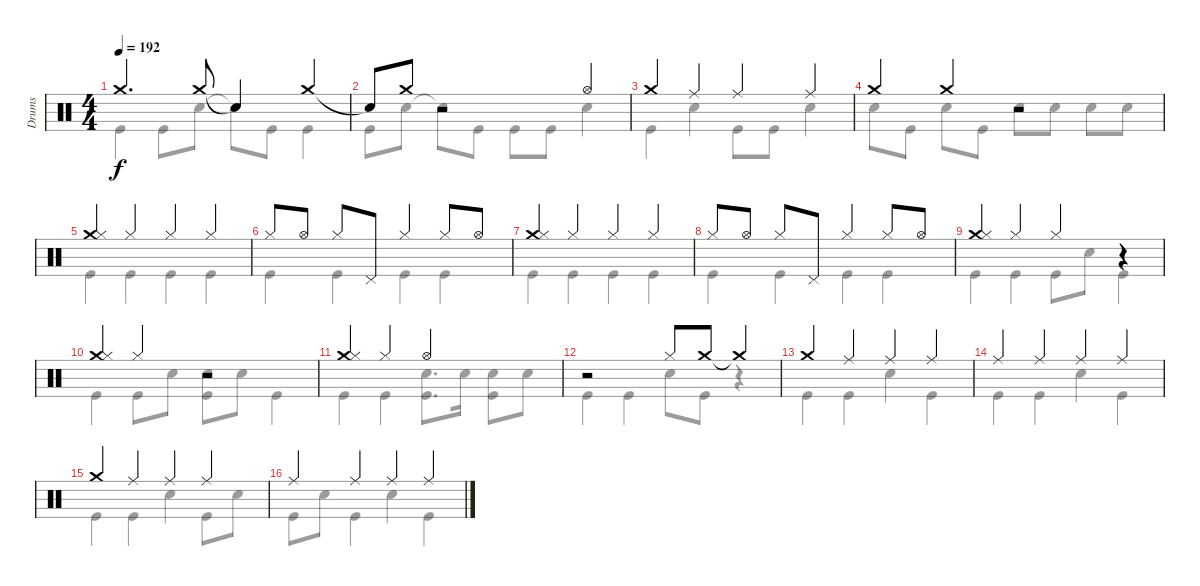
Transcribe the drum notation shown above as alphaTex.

\track ("Drums" "Drums") {instrument percussion}
\staff {score}
\articulation defaults
\voice
\ts (4 4)
\tempo 192
\clef neutral
\ks c "Crash medium (hit)".4{d dy f} "Crash medium (hit)".8 "Snare (hit)"{t}.4 "Crash medium (hit)".4
|
"Snare (hit)"{t}.8 "Crash medium (hit)".8 r.2 "Hi-Hat (open)".4 |
"Crash medium (hit)".4 "Ride (middle)".4 "Ride (middle)".4 "Ride (middle)".4 |
"Crash medium (hit)".4 "Crash medium (hit)".4 r.2 |
("Crash medium (hit)" "Hi-Hat (closed)").4 "Hi-Hat (closed)".4 "Hi-Hat (closed)".4 "Hi-Hat (closed)".4 |
"Hi-Hat (closed)".8 "Hi-Hat (open)".8 "Hi-Hat (closed)".8 "Pedal Hi-Hat (hit)".8 "Hi-Hat (closed)".4 "Hi-Hat (closed)".8 "Hi-Hat (open)".8 |
("Crash medium (hit)" "Hi-Hat (closed)").4 "Hi-Hat (closed)".4 "Hi-Hat (closed)".4 "Hi-Hat (closed)".4 |
"Hi-Hat (closed)".8 "Hi-Hat (open)".8 "Hi-Hat (closed)".8 "Pedal Hi-Hat (hit)".8 "Hi-Hat (closed)".4 "Hi-Hat (closed)".8 "Hi-Hat (open)".8 |
("Crash medium (hit)" "Hi-Hat (closed)").4 "Hi-Hat (closed)".4 "Hi-Hat (closed)".4 r.4 |
("Crash medium (hit)" "Hi-Hat (closed)").4 "Hi-Hat (closed)".4 r.2 |
("Crash medium (hit)" "Hi-Hat (closed)").4 "Hi-Hat (closed)".4 "Hi-Hat (open)".2 |
r.2 "Hi-Hat (closed)".8 "Crash medium (hit)".8 "Crash medium (hit)"{t}.4 |
"Crash medium (hit)".4 "Ride (middle)".4 "Ride (middle)".4 "Ride (middle)".4 |
"Ride (middle)".4 "Ride (middle)".4 "Ride (middle)".4 "Ride (middle)".4 |
"Crash medium (hit)".4 "Ride (middle)".4 "Ride (middle)".4 "Ride (middle)".4 |
"Ride (middle)".4 "Ride (middle)".4 "Ride (middle)".4 "Ride (middle)".4
\voice
\clef neutral
\ottava regular
\simile none
\ks c "Kick (hit)".4{dy f} "Kick (hit)".8 "Snare (hit) 2".8 "Snare (hit)"{t}.8 "Kick (hit)".8 "Kick (hit)".4
|
"Kick (hit)".8 "Snare (hit) 2".8 "Snare (hit)"{t}.8 "Kick (hit)".8 "Kick (hit)".8 "Kick (hit)".8 "Snare (hit) 2".4 |
"Kick (hit)".4 "Snare (hit) 2".4 "Kick (hit)".8 "Kick (hit)".8 "Snare (hit) 2".4 |
"Snare (hit) 2".8 "Kick (hit)".8 "Snare (hit) 2".8 "Kick (hit)".8 "Snare (hit) 2".8 "Snare (hit) 2".8 "Snare (hit) 2".8 "Snare (hit) 2".8 |
"Kick (hit)".4 "Kick (hit)".4 "Kick (hit)".4 "Kick (hit)".4 |
"Kick (hit)".4 "Kick (hit)".4 "Kick (hit)".4 "Kick (hit)".4 |
"Kick (hit)".4 "Kick (hit)".4 "Kick (hit)".4 "Kick (hit)".4 |
"Kick (hit)".4 "Kick (hit)".4 "Kick (hit)".4 "Kick (hit)".4 |
"Kick (hit)".4 "Kick (hit)".4 "Kick (hit)".8 "Snare (hit) 2".8 "Kick (hit)".4 |
"Kick (hit)".4 "Kick (hit)".8 "Snare (hit) 2".8 ("Snare (hit) 2" "Kick (hit)").8 "Snare (hit) 2".8 "Kick (hit)".4 |
"Kick (hit)".4 "Kick (hit)".4 ("Snare (hit) 2" "Kick (hit)").8{d} "Snare (hit) 2".16 ("Snare (hit) 2" "Kick (hit)").8 "Snare (hit) 2".8 |
"Kick (hit)".4 "Kick (hit)".4 "Snare (hit) 2".8 "Kick (hit)".8 r.4 |
"Kick (hit)".4 "Kick (hit)".4 "Snare (hit) 2".4 "Kick (hit)".4 |
"Kick (hit)".4 "Kick (hit)".4 "Snare (hit) 2".4 "Kick (hit)".4 |
"Kick (hit)".4 "Kick (hit)".4 "Snare (hit) 2".4 "Kick (hit)".8 "Snare (hit) 2".8 |
"Kick (hit)".8 "Snare (hit) 2".8 "Kick (hit)".4 "Snare (hit) 2".4 "Kick (hit)".4
